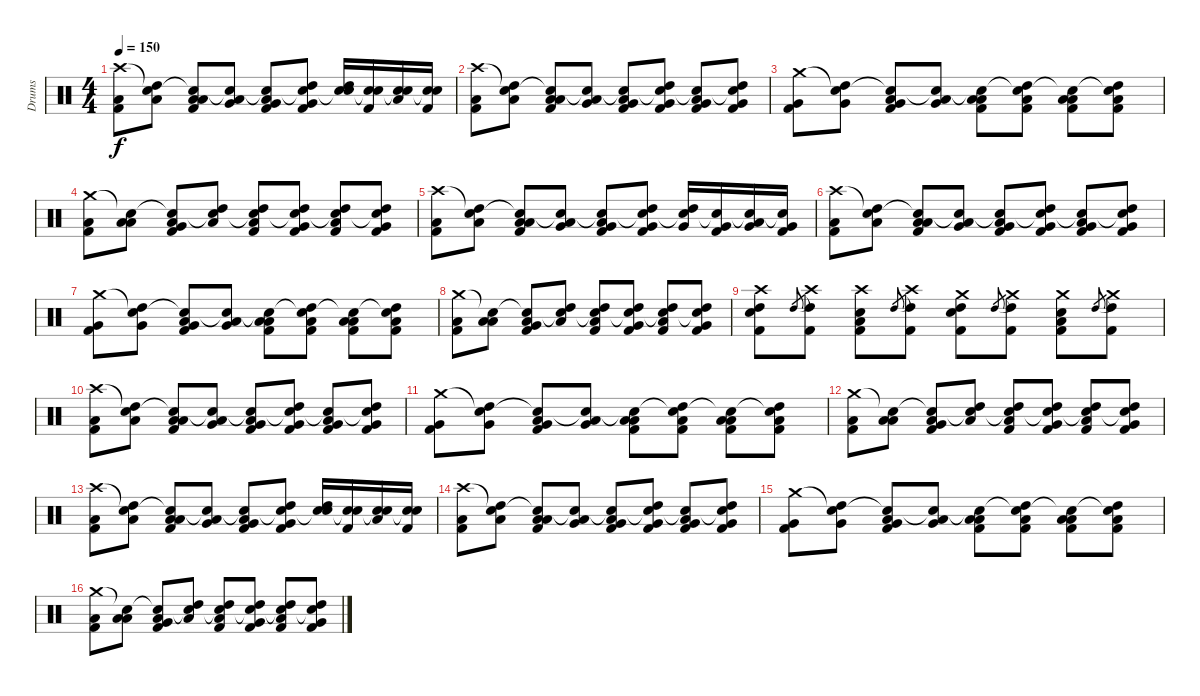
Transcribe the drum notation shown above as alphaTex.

\track ("Drums" "Drums") {instrument percussion}
\staff {score}
\articulation defaults
\ts (4 4)
\tempo 150
\clef neutral
\ks c
("Crash high (hit)" "Low Floor Tom (hit)" "Kick (hit) 2").8{dy f} ("Snare (hit)"{t} "Low Floor Tom (hit)" "High Tom (hit)").8 ("Snare (hit)"{t} "Low Floor Tom (hit)" "Low Tom (hit)" "Kick (hit) 2").8 ("Snare (hit)"{t} "Low Floor Tom (hit)" "Very Low Tom (hit)").8 ("Snare (hit)"{t} "Very Low Tom (hit)" "Low Tom (hit)" "Kick (hit) 2").8 ("Snare (hit)"{t} "Very Low Tom (hit)" "Kick (hit) 2" "High Tom (hit)").8 ("Snare (hit)"{t} "High Tom (hit)" "Snare (hit) 2").16 ("Snare (hit)"{t} "Kick (hit) 2" "Snare (hit) 2").16 ("Snare (hit)"{t} "Low Tom (hit)" "Snare (hit) 2").16 ("Snare (hit)"{t} "Kick (hit) 2" "Snare (hit) 2").16 |
("Crash high (hit)" "Low Floor Tom (hit)" "Kick (hit) 2").8 ("Snare (hit)"{t} "Low Floor Tom (hit)" "High Tom (hit)").8 ("Snare (hit)"{t} "Low Floor Tom (hit)" "Low Tom (hit)" "Kick (hit) 2").8 ("Snare (hit)"{t} "Low Floor Tom (hit)" "Very Low Tom (hit)").8 ("Snare (hit)"{t} "Very Low Tom (hit)" "Low Tom (hit)" "Kick (hit) 2").8 ("Snare (hit)"{t} "Very Low Tom (hit)" "Kick (hit) 2" "High Tom (hit)").8 ("Snare (hit)"{t} "Very Low Tom (hit)" "Low Tom (hit)" "Kick (hit) 2").8 ("Snare (hit)"{t} "Very Low Tom (hit)" "Kick (hit) 2" "High Tom (hit)").8 |
("Crash medium (hit)" "Very Low Tom (hit)" "Kick (hit) 2").8 ("Snare (hit)"{t} "Very Low Tom (hit)" "High Tom (hit)").8 ("Snare (hit)"{t} "Very Low Tom (hit)" "Low Tom (hit)" "Kick (hit) 2").8 ("Snare (hit)"{t} "Very Low Tom (hit)" "Low Floor Tom (hit)").8 ("Snare (hit)"{t} "Low Floor Tom (hit)" "Low Tom (hit)" "Kick (hit) 2").8 ("Snare (hit)"{t} "Low Floor Tom (hit)" "Kick (hit) 2" "High Tom (hit)").8 ("Snare (hit)"{t} "Low Floor Tom (hit)" "Low Tom (hit)" "Kick (hit) 2").8 ("Snare (hit)"{t} "Low Floor Tom (hit)" "Kick (hit) 2" "High Tom (hit)").8 |
("Crash medium (hit)" "Low Tom (hit)" "Kick (hit) 2").8 ("Snare (hit)"{t} "Low Tom (hit)" "Low Floor Tom (hit)").8 ("Snare (hit)"{t} "Low Tom (hit)" "Very Low Tom (hit)" "Kick (hit) 2").8 ("Snare (hit)"{t} "Low Tom (hit)" "High Tom (hit)").8 ("Snare (hit)"{t} "High Tom (hit)" "Low Floor Tom (hit)" "Kick (hit) 2").8 ("Snare (hit)"{t} "High Tom (hit)" "Kick (hit) 2" "Very Low Tom (hit)").8 ("Snare (hit)"{t} "High Tom (hit)" "Low Floor Tom (hit)" "Kick (hit) 2").8 ("Snare (hit)"{t} "High Tom (hit)" "Kick (hit) 2" "Very Low Tom (hit)").8 |
("Crash high (hit)" "Low Floor Tom (hit)" "Kick (hit) 2").8 ("Snare (hit)"{t} "Low Floor Tom (hit)" "High Tom (hit)").8 ("Snare (hit)"{t} "Low Floor Tom (hit)" "Low Tom (hit)" "Kick (hit) 2").8 ("Snare (hit)"{t} "Low Floor Tom (hit)" "Very Low Tom (hit)").8 ("Snare (hit)"{t} "Very Low Tom (hit)" "Low Tom (hit)" "Kick (hit) 2").8 ("Snare (hit)"{t} "Very Low Tom (hit)" "Kick (hit) 2" "High Tom (hit)").8 ("Snare (hit)"{t} "High Tom (hit)" "Very Low Tom (hit)").16 ("Snare (hit)"{t} "Kick (hit) 2" "Very Low Tom (hit)").16 ("Snare (hit)"{t} "Low Tom (hit)" "Very Low Tom (hit)").16 ("Snare (hit)"{t} "Kick (hit) 2" "Very Low Tom (hit)").16 |
("Crash high (hit)" "Low Floor Tom (hit)" "Kick (hit) 2").8 ("Snare (hit)"{t} "Low Floor Tom (hit)" "High Tom (hit)").8 ("Snare (hit)"{t} "Low Floor Tom (hit)" "Low Tom (hit)" "Kick (hit) 2").8 ("Snare (hit)"{t} "Low Floor Tom (hit)" "Very Low Tom (hit)").8 ("Snare (hit)"{t} "Very Low Tom (hit)" "Low Tom (hit)" "Kick (hit) 2").8 ("Snare (hit)"{t} "Very Low Tom (hit)" "Kick (hit) 2" "High Tom (hit)").8 ("Snare (hit)"{t} "Very Low Tom (hit)" "Low Tom (hit)" "Kick (hit) 2").8 ("Snare (hit)"{t} "Very Low Tom (hit)" "Kick (hit) 2" "High Tom (hit)").8 |
("Crash medium (hit)" "Very Low Tom (hit)" "Kick (hit) 2").8 ("Snare (hit)"{t} "Very Low Tom (hit)" "High Tom (hit)").8 ("Snare (hit)"{t} "Very Low Tom (hit)" "Low Tom (hit)" "Kick (hit) 2").8 ("Snare (hit)"{t} "Very Low Tom (hit)" "Low Floor Tom (hit)").8 ("Snare (hit)"{t} "Low Floor Tom (hit)" "Low Tom (hit)" "Kick (hit) 2").8 ("Snare (hit)"{t} "Low Floor Tom (hit)" "Kick (hit) 2" "High Tom (hit)").8 ("Snare (hit)"{t} "Low Floor Tom (hit)" "Low Tom (hit)" "Kick (hit) 2").8 ("Snare (hit)"{t} "Low Floor Tom (hit)" "Kick (hit) 2" "High Tom (hit)").8 |
("Crash medium (hit)" "Low Tom (hit)" "Kick (hit) 2").8 ("Snare (hit)"{t} "Low Tom (hit)" "Low Floor Tom (hit)").8 ("Snare (hit)"{t} "Low Tom (hit)" "Very Low Tom (hit)" "Kick (hit) 2").8 ("Snare (hit)"{t} "Low Tom (hit)" "High Tom (hit)").8 ("Snare (hit)"{t} "High Tom (hit)" "Low Floor Tom (hit)" "Kick (hit) 2").8 ("Snare (hit)"{t} "High Tom (hit)" "Kick (hit) 2" "Very Low Tom (hit)").8 ("Snare (hit)"{t} "High Tom (hit)" "Low Floor Tom (hit)" "Kick (hit) 2").8 ("Snare (hit)"{t} "High Tom (hit)" "Kick (hit) 2" "Very Low Tom (hit)").8 |
("Crash high (hit)" "High Tom (hit)" "Snare (hit) 2" "Kick (hit) 2").8 "High Tom (hit)".8{gr} ("Crash high (hit)"{t} "High Tom (hit)" "Kick (hit) 2").8 ("Crash high (hit)" "Low Tom (hit)" "Snare (hit) 2" "Kick (hit) 2").8 "High Tom (hit)".8{gr} ("Crash high (hit)"{t} "High Tom (hit)" "Kick (hit) 2").8 ("Crash medium (hit)" "High Tom (hit)" "Snare (hit) 2" "Kick (hit) 2").8 "High Tom (hit)".8{gr} ("Crash medium (hit)"{t} "High Tom (hit)" "Kick (hit) 2").8 ("Crash medium (hit)" "Low Tom (hit)" "Snare (hit) 2" "Kick (hit) 2").8 "High Tom (hit)".8{gr} ("Crash medium (hit)"{t} "High Tom (hit)" "Kick (hit) 2").8 |
("Crash high (hit)" "Low Floor Tom (hit)" "Kick (hit) 2").8 ("Snare (hit)"{t} "Low Floor Tom (hit)" "High Tom (hit)").8 ("Snare (hit)"{t} "Low Floor Tom (hit)" "Low Tom (hit)" "Kick (hit) 2").8 ("Snare (hit)"{t} "Low Floor Tom (hit)" "Very Low Tom (hit)").8 ("Snare (hit)"{t} "Very Low Tom (hit)" "Low Tom (hit)" "Kick (hit) 2").8 ("Snare (hit)"{t} "Very Low Tom (hit)" "Kick (hit) 2" "High Tom (hit)").8 ("Snare (hit)"{t} "Very Low Tom (hit)" "Low Tom (hit)" "Kick (hit) 2").8 ("Snare (hit)"{t} "Very Low Tom (hit)" "Kick (hit) 2" "High Tom (hit)").8 |
("Crash medium (hit)" "Very Low Tom (hit)" "Kick (hit) 2").8 ("Snare (hit)"{t} "Very Low Tom (hit)" "High Tom (hit)").8 ("Snare (hit)"{t} "Very Low Tom (hit)" "Low Tom (hit)" "Kick (hit) 2").8 ("Snare (hit)"{t} "Very Low Tom (hit)" "Low Floor Tom (hit)").8 ("Snare (hit)"{t} "Low Floor Tom (hit)" "Low Tom (hit)" "Kick (hit) 2").8 ("Snare (hit)"{t} "Low Floor Tom (hit)" "Kick (hit) 2" "High Tom (hit)").8 ("Snare (hit)"{t} "Low Floor Tom (hit)" "Low Tom (hit)" "Kick (hit) 2").8 ("Snare (hit)"{t} "Low Floor Tom (hit)" "Kick (hit) 2" "High Tom (hit)").8 |
("Crash medium (hit)" "Low Tom (hit)" "Kick (hit) 2").8 ("Snare (hit)"{t} "Low Tom (hit)" "Low Floor Tom (hit)").8 ("Snare (hit)"{t} "Low Tom (hit)" "Very Low Tom (hit)" "Kick (hit) 2").8 ("Snare (hit)"{t} "Low Tom (hit)" "High Tom (hit)").8 ("Snare (hit)"{t} "High Tom (hit)" "Low Floor Tom (hit)" "Kick (hit) 2").8 ("Snare (hit)"{t} "High Tom (hit)" "Kick (hit) 2" "Very Low Tom (hit)").8 ("Snare (hit)"{t} "High Tom (hit)" "Low Floor Tom (hit)" "Kick (hit) 2").8 ("Snare (hit)"{t} "High Tom (hit)" "Kick (hit) 2" "Very Low Tom (hit)").8 |
("Crash high (hit)" "Low Floor Tom (hit)" "Kick (hit) 2").8 ("Snare (hit)"{t} "Low Floor Tom (hit)" "High Tom (hit)").8 ("Snare (hit)"{t} "Low Floor Tom (hit)" "Low Tom (hit)" "Kick (hit) 2").8 ("Snare (hit)"{t} "Low Floor Tom (hit)" "Very Low Tom (hit)").8 ("Snare (hit)"{t} "Very Low Tom (hit)" "Low Tom (hit)" "Kick (hit) 2").8 ("Snare (hit)"{t} "Very Low Tom (hit)" "Kick (hit) 2" "High Tom (hit)").8 ("Snare (hit)"{t} "High Tom (hit)" "Snare (hit) 2").16 ("Snare (hit)"{t} "Kick (hit) 2" "Snare (hit) 2").16 ("Snare (hit)"{t} "Low Tom (hit)" "Snare (hit) 2").16 ("Snare (hit)"{t} "Kick (hit) 2" "Snare (hit) 2").16 |
("Crash high (hit)" "Low Floor Tom (hit)" "Kick (hit) 2").8 ("Snare (hit)"{t} "Low Floor Tom (hit)" "High Tom (hit)").8 ("Snare (hit)"{t} "Low Floor Tom (hit)" "Low Tom (hit)" "Kick (hit) 2").8 ("Snare (hit)"{t} "Low Floor Tom (hit)" "Very Low Tom (hit)").8 ("Snare (hit)"{t} "Very Low Tom (hit)" "Low Tom (hit)" "Kick (hit) 2").8 ("Snare (hit)"{t} "Very Low Tom (hit)" "Kick (hit) 2" "High Tom (hit)").8 ("Snare (hit)"{t} "Very Low Tom (hit)" "Low Tom (hit)" "Kick (hit) 2").8 ("Snare (hit)"{t} "Very Low Tom (hit)" "Kick (hit) 2" "High Tom (hit)").8 |
("Crash medium (hit)" "Very Low Tom (hit)" "Kick (hit) 2").8 ("Snare (hit)"{t} "Very Low Tom (hit)" "High Tom (hit)").8 ("Snare (hit)"{t} "Very Low Tom (hit)" "Low Tom (hit)" "Kick (hit) 2").8 ("Snare (hit)"{t} "Very Low Tom (hit)" "Low Floor Tom (hit)").8 ("Snare (hit)"{t} "Low Floor Tom (hit)" "Low Tom (hit)" "Kick (hit) 2").8 ("Snare (hit)"{t} "Low Floor Tom (hit)" "Kick (hit) 2" "High Tom (hit)").8 ("Snare (hit)"{t} "Low Floor Tom (hit)" "Low Tom (hit)" "Kick (hit) 2").8 ("Snare (hit)"{t} "Low Floor Tom (hit)" "Kick (hit) 2" "High Tom (hit)").8 |
("Crash medium (hit)" "Low Tom (hit)" "Kick (hit) 2").8 ("Snare (hit)"{t} "Low Tom (hit)" "Low Floor Tom (hit)").8 ("Snare (hit)"{t} "Low Tom (hit)" "Very Low Tom (hit)" "Kick (hit) 2").8 ("Snare (hit)"{t} "Low Tom (hit)" "High Tom (hit)").8 ("Snare (hit)"{t} "High Tom (hit)" "Low Floor Tom (hit)" "Kick (hit) 2").8 ("Snare (hit)"{t} "High Tom (hit)" "Kick (hit) 2" "Very Low Tom (hit)").8 ("Snare (hit)"{t} "High Tom (hit)" "Low Floor Tom (hit)" "Kick (hit) 2").8 ("Snare (hit)"{t} "High Tom (hit)" "Kick (hit) 2" "Very Low Tom (hit)").8
